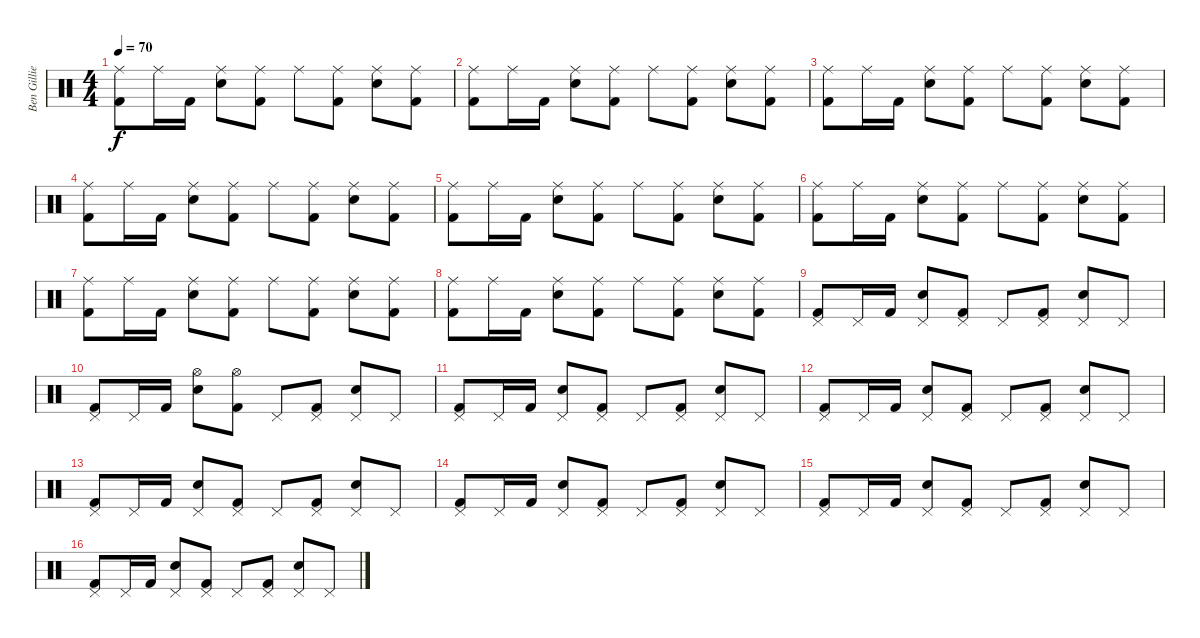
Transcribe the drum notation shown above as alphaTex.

\track ("Ben Gillies" "Ben Gillie") {instrument percussion}
\staff {score}
\articulation defaults
\ts (4 4)
\tempo 70
\clef neutral
\ks c
("Ride (middle)" "Kick (hit) 2").8{dy f} "Ride (middle)".16 "Kick (hit) 2".16 ("Ride (middle)" "Electric Snare (hit)").8 ("Ride (middle)" "Kick (hit) 2").8 "Ride (middle)".8 ("Ride (middle)" "Kick (hit) 2").8 ("Ride (middle)" "Electric Snare (hit)").8 ("Ride (middle)" "Kick (hit) 2").8 |
("Ride (middle)" "Kick (hit) 2").8 "Ride (middle)".16 "Kick (hit) 2".16 ("Ride (middle)" "Electric Snare (hit)").8 ("Ride (middle)" "Kick (hit) 2").8 "Ride (middle)".8 ("Ride (middle)" "Kick (hit) 2").8 ("Ride (middle)" "Electric Snare (hit)").8 ("Ride (middle)" "Kick (hit) 2").8 |
("Ride (middle)" "Kick (hit) 2").8 "Ride (middle)".16 "Kick (hit) 2".16 ("Ride (middle)" "Electric Snare (hit)").8 ("Ride (middle)" "Kick (hit) 2").8 "Ride (middle)".8 ("Ride (middle)" "Kick (hit) 2").8 ("Ride (middle)" "Electric Snare (hit)").8 ("Ride (middle)" "Kick (hit) 2").8 |
("Ride (middle)" "Kick (hit) 2").8 "Ride (middle)".16 "Kick (hit) 2".16 ("Ride (middle)" "Electric Snare (hit)").8 ("Ride (middle)" "Kick (hit) 2").8 "Ride (middle)".8 ("Ride (middle)" "Kick (hit) 2").8 ("Ride (middle)" "Electric Snare (hit)").8 ("Ride (middle)" "Kick (hit) 2").8 |
("Ride (middle)" "Kick (hit) 2").8 "Ride (middle)".16 "Kick (hit) 2".16 ("Ride (middle)" "Electric Snare (hit)").8 ("Ride (middle)" "Kick (hit) 2").8 "Ride (middle)".8 ("Ride (middle)" "Kick (hit) 2").8 ("Ride (middle)" "Electric Snare (hit)").8 ("Ride (middle)" "Kick (hit) 2").8 |
("Ride (middle)" "Kick (hit) 2").8 "Ride (middle)".16 "Kick (hit) 2".16 ("Ride (middle)" "Electric Snare (hit)").8 ("Ride (middle)" "Kick (hit) 2").8 "Ride (middle)".8 ("Ride (middle)" "Kick (hit) 2").8 ("Ride (middle)" "Electric Snare (hit)").8 ("Ride (middle)" "Kick (hit) 2").8 |
("Ride (middle)" "Kick (hit) 2").8 "Ride (middle)".16 "Kick (hit) 2".16 ("Ride (middle)" "Electric Snare (hit)").8 ("Ride (middle)" "Kick (hit) 2").8 "Ride (middle)".8 ("Ride (middle)" "Kick (hit) 2").8 ("Ride (middle)" "Electric Snare (hit)").8 ("Ride (middle)" "Kick (hit) 2").8 |
("Ride (middle)" "Kick (hit) 2").8 "Ride (middle)".16 "Kick (hit) 2".16 ("Ride (middle)" "Electric Snare (hit)").8 ("Ride (middle)" "Kick (hit) 2").8 "Ride (middle)".8 ("Ride (middle)" "Kick (hit) 2").8 ("Ride (middle)" "Electric Snare (hit)").8 ("Ride (middle)" "Kick (hit) 2").8 |
("Pedal Hi-Hat (hit)" "Kick (hit) 2").8 "Pedal Hi-Hat (hit)".16 "Kick (hit) 2".16 ("Pedal Hi-Hat (hit)" "Electric Snare (hit)").8 ("Pedal Hi-Hat (hit)" "Kick (hit) 2").8 "Pedal Hi-Hat (hit)".8 ("Pedal Hi-Hat (hit)" "Kick (hit) 2").8 ("Pedal Hi-Hat (hit)" "Electric Snare (hit)").8 "Pedal Hi-Hat (hit)".8 |
("Pedal Hi-Hat (hit)" "Kick (hit) 2").8 "Pedal Hi-Hat (hit)".16 "Kick (hit) 2".16 ("Hi-Hat (open)" "Electric Snare (hit)").8 ("Hi-Hat (open)" "Kick (hit) 2").8 "Pedal Hi-Hat (hit)".8 ("Pedal Hi-Hat (hit)" "Kick (hit) 2").8 ("Pedal Hi-Hat (hit)" "Electric Snare (hit)").8 "Pedal Hi-Hat (hit)".8 |
("Pedal Hi-Hat (hit)" "Kick (hit) 2").8 "Pedal Hi-Hat (hit)".16 "Kick (hit) 2".16 ("Pedal Hi-Hat (hit)" "Electric Snare (hit)").8 ("Pedal Hi-Hat (hit)" "Kick (hit) 2").8 "Pedal Hi-Hat (hit)".8 ("Pedal Hi-Hat (hit)" "Kick (hit) 2").8 ("Pedal Hi-Hat (hit)" "Electric Snare (hit)").8 "Pedal Hi-Hat (hit)".8 |
("Pedal Hi-Hat (hit)" "Kick (hit) 2").8 "Pedal Hi-Hat (hit)".16 "Kick (hit) 2".16 ("Pedal Hi-Hat (hit)" "Electric Snare (hit)").8 ("Pedal Hi-Hat (hit)" "Kick (hit) 2").8 "Pedal Hi-Hat (hit)".8 ("Pedal Hi-Hat (hit)" "Kick (hit) 2").8 ("Pedal Hi-Hat (hit)" "Electric Snare (hit)").8 "Pedal Hi-Hat (hit)".8 |
("Pedal Hi-Hat (hit)" "Kick (hit) 2").8 "Pedal Hi-Hat (hit)".16 "Kick (hit) 2".16 ("Pedal Hi-Hat (hit)" "Electric Snare (hit)").8 ("Pedal Hi-Hat (hit)" "Kick (hit) 2").8 "Pedal Hi-Hat (hit)".8 ("Pedal Hi-Hat (hit)" "Kick (hit) 2").8 ("Pedal Hi-Hat (hit)" "Electric Snare (hit)").8 "Pedal Hi-Hat (hit)".8 |
("Pedal Hi-Hat (hit)" "Kick (hit) 2").8 "Pedal Hi-Hat (hit)".16 "Kick (hit) 2".16 ("Pedal Hi-Hat (hit)" "Electric Snare (hit)").8 ("Pedal Hi-Hat (hit)" "Kick (hit) 2").8 "Pedal Hi-Hat (hit)".8 ("Pedal Hi-Hat (hit)" "Kick (hit) 2").8 ("Pedal Hi-Hat (hit)" "Electric Snare (hit)").8 "Pedal Hi-Hat (hit)".8 |
("Pedal Hi-Hat (hit)" "Kick (hit) 2").8 "Pedal Hi-Hat (hit)".16 "Kick (hit) 2".16 ("Pedal Hi-Hat (hit)" "Electric Snare (hit)").8 ("Pedal Hi-Hat (hit)" "Kick (hit) 2").8 "Pedal Hi-Hat (hit)".8 ("Pedal Hi-Hat (hit)" "Kick (hit) 2").8 ("Pedal Hi-Hat (hit)" "Electric Snare (hit)").8 "Pedal Hi-Hat (hit)".8 |
("Pedal Hi-Hat (hit)" "Kick (hit) 2").8 "Pedal Hi-Hat (hit)".16 "Kick (hit) 2".16 ("Pedal Hi-Hat (hit)" "Electric Snare (hit)").8 ("Pedal Hi-Hat (hit)" "Kick (hit) 2").8 "Pedal Hi-Hat (hit)".8 ("Pedal Hi-Hat (hit)" "Kick (hit) 2").8 ("Pedal Hi-Hat (hit)" "Electric Snare (hit)").8 "Pedal Hi-Hat (hit)".8
